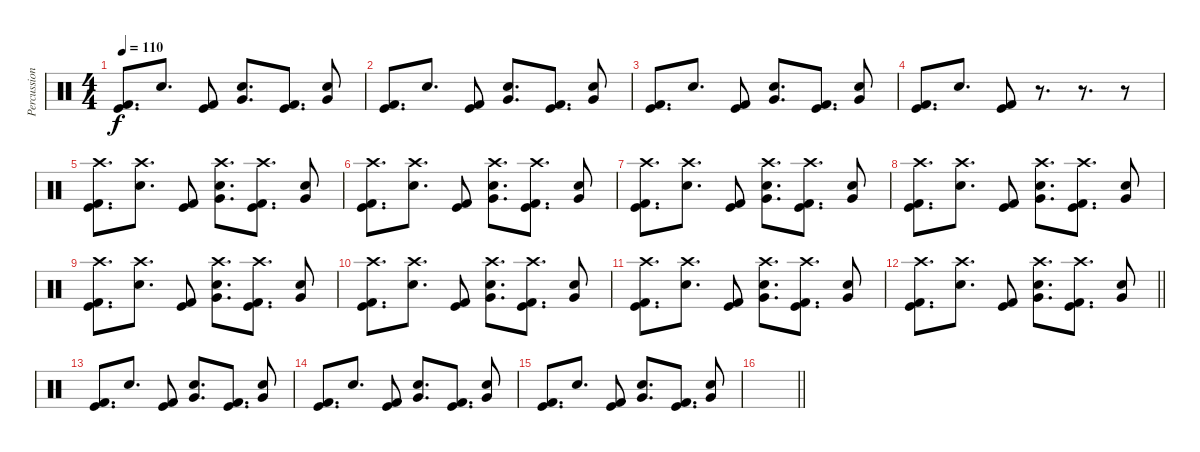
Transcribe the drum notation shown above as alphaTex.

\track ("Percussion" "Percussion") {instrument percussion}
\staff {score}
\articulation defaults
\ts (4 4)
\tempo 110
\clef neutral
\ks c
("Kick (hit) 2" "Kick (hit)").8{d dy f} "Snare (hit) 2".8{d} ("Kick (hit) 2" "Kick (hit)").8 ("Very Low Tom (hit)" "Snare (hit) 2").8{d} ("Kick (hit) 2" "Kick (hit)").8{d} ("Very Low Tom (hit)" "Snare (hit) 2").8 |
("Kick (hit) 2" "Kick (hit)").8{d} "Snare (hit) 2".8{d} ("Kick (hit) 2" "Kick (hit)").8 ("Very Low Tom (hit)" "Snare (hit) 2").8{d} ("Kick (hit) 2" "Kick (hit)").8{d} ("Very Low Tom (hit)" "Snare (hit) 2").8 |
("Kick (hit) 2" "Kick (hit)").8{d} "Snare (hit) 2".8{d} ("Kick (hit) 2" "Kick (hit)").8 ("Very Low Tom (hit)" "Snare (hit) 2").8{d} ("Kick (hit) 2" "Kick (hit)").8{d} ("Very Low Tom (hit)" "Snare (hit) 2").8 |
("Kick (hit) 2" "Kick (hit)").8{d} "Snare (hit) 2".8{d} ("Kick (hit) 2" "Kick (hit)").8 r.8{d} r.8{d} r.8 |
("Crash high (hit)" "Kick (hit) 2" "Kick (hit)").8{d} ("Crash high (hit)" "Snare (hit) 2").8{d} ("Kick (hit) 2" "Kick (hit)").8 ("Crash high (hit)" "Very Low Tom (hit)" "Snare (hit) 2").8{d} ("Crash high (hit)" "Kick (hit) 2" "Kick (hit)").8{d} ("Very Low Tom (hit)" "Snare (hit) 2").8 |
("Crash high (hit)" "Kick (hit) 2" "Kick (hit)").8{d} ("Crash high (hit)" "Snare (hit) 2").8{d} ("Kick (hit) 2" "Kick (hit)").8 ("Crash high (hit)" "Very Low Tom (hit)" "Snare (hit) 2").8{d} ("Crash high (hit)" "Kick (hit) 2" "Kick (hit)").8{d} ("Very Low Tom (hit)" "Snare (hit) 2").8 |
("Crash high (hit)" "Kick (hit) 2" "Kick (hit)").8{d} ("Crash high (hit)" "Snare (hit) 2").8{d} ("Kick (hit) 2" "Kick (hit)").8 ("Crash high (hit)" "Very Low Tom (hit)" "Snare (hit) 2").8{d} ("Crash high (hit)" "Kick (hit) 2" "Kick (hit)").8{d} ("Very Low Tom (hit)" "Snare (hit) 2").8 |
("Crash high (hit)" "Kick (hit) 2" "Kick (hit)").8{d} ("Crash high (hit)" "Snare (hit) 2").8{d} ("Kick (hit) 2" "Kick (hit)").8 ("Crash high (hit)" "Very Low Tom (hit)" "Snare (hit) 2").8{d} ("Crash high (hit)" "Kick (hit) 2" "Kick (hit)").8{d} ("Very Low Tom (hit)" "Snare (hit) 2").8 |
("Crash high (hit)" "Kick (hit) 2" "Kick (hit)").8{d} ("Crash high (hit)" "Snare (hit) 2").8{d} ("Kick (hit) 2" "Kick (hit)").8 ("Crash high (hit)" "Very Low Tom (hit)" "Snare (hit) 2").8{d} ("Crash high (hit)" "Kick (hit) 2" "Kick (hit)").8{d} ("Very Low Tom (hit)" "Snare (hit) 2").8 |
("Crash high (hit)" "Kick (hit) 2" "Kick (hit)").8{d} ("Crash high (hit)" "Snare (hit) 2").8{d} ("Kick (hit) 2" "Kick (hit)").8 ("Crash high (hit)" "Very Low Tom (hit)" "Snare (hit) 2").8{d} ("Crash high (hit)" "Kick (hit) 2" "Kick (hit)").8{d} ("Very Low Tom (hit)" "Snare (hit) 2").8 |
("Crash high (hit)" "Kick (hit) 2" "Kick (hit)").8{d} ("Crash high (hit)" "Snare (hit) 2").8{d} ("Kick (hit) 2" "Kick (hit)").8 ("Crash high (hit)" "Very Low Tom (hit)" "Snare (hit) 2").8{d} ("Crash high (hit)" "Kick (hit) 2" "Kick (hit)").8{d} ("Very Low Tom (hit)" "Snare (hit) 2").8 |
\barLineRight lightlight
("Crash high (hit)" "Kick (hit) 2" "Kick (hit)").8{d} ("Crash high (hit)" "Snare (hit) 2").8{d} ("Kick (hit) 2" "Kick (hit)").8 ("Crash high (hit)" "Very Low Tom (hit)" "Snare (hit) 2").8{d} ("Crash high (hit)" "Kick (hit) 2" "Kick (hit)").8{d} ("Very Low Tom (hit)" "Snare (hit) 2").8 |
("Kick (hit) 2" "Kick (hit)").8{d} "Snare (hit) 2".8{d} ("Kick (hit) 2" "Kick (hit)").8 ("Very Low Tom (hit)" "Snare (hit) 2").8{d} ("Kick (hit) 2" "Kick (hit)").8{d} ("Very Low Tom (hit)" "Snare (hit) 2").8 |
("Kick (hit) 2" "Kick (hit)").8{d} "Snare (hit) 2".8{d} ("Kick (hit) 2" "Kick (hit)").8 ("Very Low Tom (hit)" "Snare (hit) 2").8{d} ("Kick (hit) 2" "Kick (hit)").8{d} ("Very Low Tom (hit)" "Snare (hit) 2").8 |
("Kick (hit) 2" "Kick (hit)").8{d} "Snare (hit) 2".8{d} ("Kick (hit) 2" "Kick (hit)").8 ("Very Low Tom (hit)" "Snare (hit) 2").8{d} ("Kick (hit) 2" "Kick (hit)").8{d} ("Very Low Tom (hit)" "Snare (hit) 2").8 |
\barLineRight lightlight
